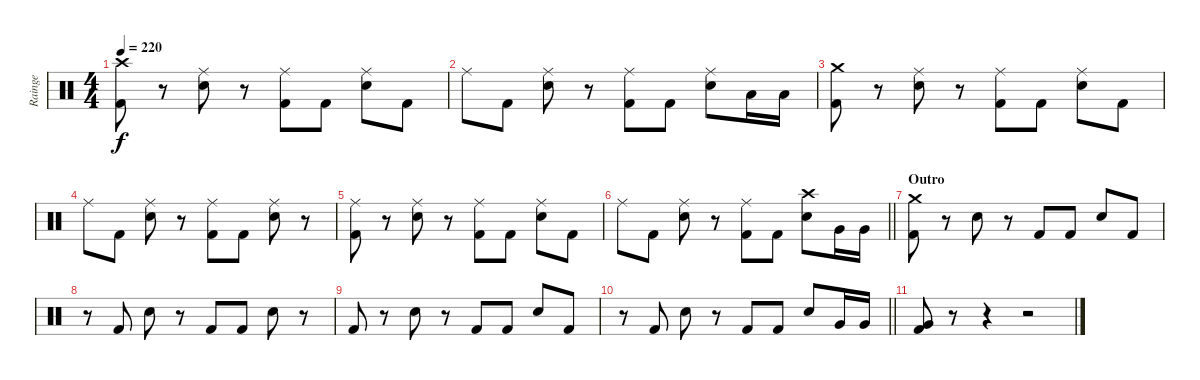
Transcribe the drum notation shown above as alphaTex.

\track ("Rainge" "Rainge") {instrument percussion}
\staff {score}
\articulation defaults
\ts (4 4)
\tempo 220
\clef neutral
\ks c
("Crash high (hit)" "Kick (hit) 2").8{dy f} r.8 ("Ride (middle)" "Electric Snare (hit)").8 r.8 ("Ride (middle)" "Kick (hit) 2").8 "Kick (hit) 2".8 ("Ride (middle)" "Electric Snare (hit)").8 "Kick (hit) 2".8 |
"Ride (middle)".8 "Kick (hit) 2".8 ("Ride (middle)" "Electric Snare (hit)").8 r.8 ("Ride (middle)" "Kick (hit) 2").8 "Kick (hit) 2".8 ("Ride (middle)" "Electric Snare (hit)").8 "Low Tom (hit)".16 "Low Tom (hit)".16 |
("Crash medium (hit)" "Kick (hit) 2").8 r.8 ("Ride (middle)" "Electric Snare (hit)").8 r.8 ("Ride (middle)" "Kick (hit) 2").8 "Kick (hit) 2".8 ("Ride (middle)" "Electric Snare (hit)").8 "Kick (hit) 2".8 |
"Ride (middle)".8 "Kick (hit) 2".8 ("Ride (middle)" "Electric Snare (hit)").8 r.8 ("Ride (middle)" "Kick (hit) 2").8 "Kick (hit) 2".8 ("Ride (middle)" "Electric Snare (hit)").8 r.8 |
("Ride (middle)" "Kick (hit) 2").8 r.8 ("Ride (middle)" "Electric Snare (hit)").8 r.8 ("Ride (middle)" "Kick (hit) 2").8 "Kick (hit) 2".8 ("Ride (middle)" "Electric Snare (hit)").8 "Kick (hit) 2".8 |
\barLineRight lightlight "Ride (middle)".8 "Kick (hit) 2".8
("Ride (middle)" "Electric Snare (hit)").8 r.8 ("Ride (middle)" "Kick (hit) 2").8 "Kick (hit) 2".8 ("Crash high (hit)" "Electric Snare (hit)").8 "Very Low Tom (hit)".16 "Very Low Tom (hit)".16 |
\section ("" "Outro")
("Crash medium (hit)" "Kick (hit) 2").8 r.8 "Electric Snare (hit)".8 r.8 "Kick (hit) 2".8 "Kick (hit) 2".8 "Electric Snare (hit)".8 "Kick (hit) 2".8 |
r.8 "Kick (hit) 2".8 "Electric Snare (hit)".8 r.8 "Kick (hit) 2".8 "Kick (hit) 2".8 "Electric Snare (hit)".8 r.8 |
"Kick (hit) 2".8 r.8 "Electric Snare (hit)".8 r.8 "Kick (hit) 2".8 "Kick (hit) 2".8 "Electric Snare (hit)".8 "Kick (hit) 2".8 |
\barLineRight lightlight
r.8 "Kick (hit) 2".8 "Electric Snare (hit)".8 r.8 "Kick (hit) 2".8 "Kick (hit) 2".8 "Electric Snare (hit)".8 "Very Low Tom (hit)".16 "Very Low Tom (hit)".16 |
("Very Low Tom (hit)" "Kick (hit) 2").8 r.8 r.4 r.2
